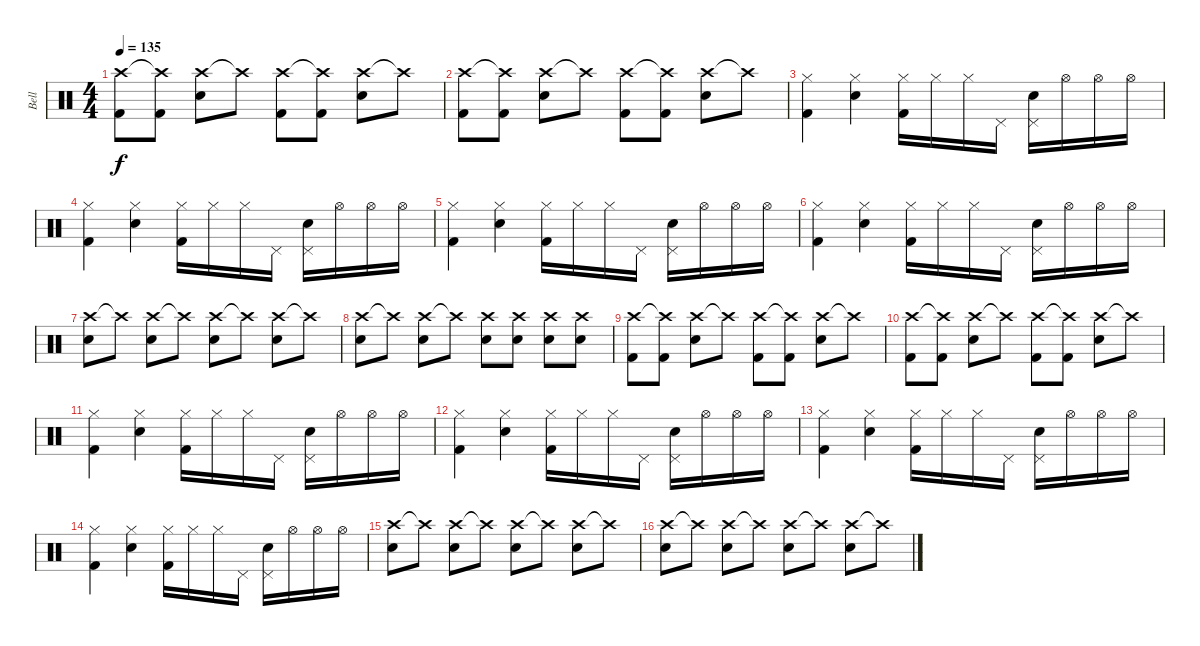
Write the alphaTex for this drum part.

\track ("Bell" "Bell") {instrument percussion}
\staff {score}
\articulation defaults
\ts (4 4)
\tempo 135
\clef neutral
\ks c
("Crash high (hit)" "Kick (hit) 2").8{dy f} ("Crash high (hit)"{t} "Kick (hit) 2").8 ("Crash high (hit)" "Snare (hit) 2").8 "Crash high (hit)"{t}.8 ("Crash high (hit)" "Kick (hit) 2").8 ("Crash high (hit)"{t} "Kick (hit) 2").8 ("Crash high (hit)" "Snare (hit) 2").8 "Crash high (hit)"{t}.8 |
("Crash high (hit)" "Kick (hit) 2").8 ("Crash high (hit)"{t} "Kick (hit) 2").8 ("Crash high (hit)" "Snare (hit) 2").8 "Crash high (hit)"{t}.8 ("Crash high (hit)" "Kick (hit) 2").8 ("Crash high (hit)"{t} "Kick (hit) 2").8 ("Crash high (hit)" "Snare (hit) 2").8 "Crash high (hit)"{t}.8 |
("Hi-Hat (closed)" "Kick (hit) 2").4 ("Hi-Hat (closed)" "Snare (hit) 2").4 ("Hi-Hat (closed)" "Kick (hit) 2").16 "Hi-Hat (closed)".16 "Hi-Hat (closed)".16 "Pedal Hi-Hat (hit)".16 ("Pedal Hi-Hat (hit)" "Snare (hit) 2").16 "Hi-Hat (open)".16 "Hi-Hat (open)".16 "Hi-Hat (open)".16 |
("Hi-Hat (closed)" "Kick (hit) 2").4 ("Hi-Hat (closed)" "Snare (hit) 2").4 ("Hi-Hat (closed)" "Kick (hit) 2").16 "Hi-Hat (closed)".16 "Hi-Hat (closed)".16 "Pedal Hi-Hat (hit)".16 ("Pedal Hi-Hat (hit)" "Snare (hit) 2").16 "Hi-Hat (open)".16 "Hi-Hat (open)".16 "Hi-Hat (open)".16 |
("Hi-Hat (closed)" "Kick (hit) 2").4 ("Hi-Hat (closed)" "Snare (hit) 2").4 ("Hi-Hat (closed)" "Kick (hit) 2").16 "Hi-Hat (closed)".16 "Hi-Hat (closed)".16 "Pedal Hi-Hat (hit)".16 ("Pedal Hi-Hat (hit)" "Snare (hit) 2").16 "Hi-Hat (open)".16 "Hi-Hat (open)".16 "Hi-Hat (open)".16 |
("Hi-Hat (closed)" "Kick (hit) 2").4 ("Hi-Hat (closed)" "Snare (hit) 2").4 ("Hi-Hat (closed)" "Kick (hit) 2").16 "Hi-Hat (closed)".16 "Hi-Hat (closed)".16 "Pedal Hi-Hat (hit)".16 ("Pedal Hi-Hat (hit)" "Snare (hit) 2").16 "Hi-Hat (open)".16 "Hi-Hat (open)".16 "Hi-Hat (open)".16 |
("Crash high (hit)" "Snare (hit) 2").8 "Crash high (hit)"{t}.8 ("Crash high (hit)" "Snare (hit) 2").8 "Crash high (hit)"{t}.8 ("Crash high (hit)" "Snare (hit) 2").8 "Crash high (hit)"{t}.8 ("Crash high (hit)" "Snare (hit) 2").8 "Crash high (hit)"{t}.8 |
("Crash high (hit)" "Snare (hit) 2").8 "Crash high (hit)"{t}.8 ("Crash high (hit)" "Snare (hit) 2").8 "Crash high (hit)"{t}.8 ("Crash high (hit)" "Snare (hit) 2").8 ("Crash high (hit)" "Snare (hit) 2").8 ("Crash high (hit)" "Snare (hit) 2").8 ("Crash high (hit)" "Snare (hit) 2").8 |
("Crash high (hit)" "Kick (hit) 2").8 ("Crash high (hit)"{t} "Kick (hit) 2").8 ("Crash high (hit)" "Snare (hit) 2").8 "Crash high (hit)"{t}.8 ("Crash high (hit)" "Kick (hit) 2").8 ("Crash high (hit)"{t} "Kick (hit) 2").8 ("Crash high (hit)" "Snare (hit) 2").8 "Crash high (hit)"{t}.8 |
("Crash high (hit)" "Kick (hit) 2").8 ("Crash high (hit)"{t} "Kick (hit) 2").8 ("Crash high (hit)" "Snare (hit) 2").8 "Crash high (hit)"{t}.8 ("Crash high (hit)" "Kick (hit) 2").8 ("Crash high (hit)"{t} "Kick (hit) 2").8 ("Crash high (hit)" "Snare (hit) 2").8 "Crash high (hit)"{t}.8 |
("Hi-Hat (closed)" "Kick (hit) 2").4 ("Hi-Hat (closed)" "Snare (hit) 2").4 ("Hi-Hat (closed)" "Kick (hit) 2").16 "Hi-Hat (closed)".16 "Hi-Hat (closed)".16 "Pedal Hi-Hat (hit)".16 ("Pedal Hi-Hat (hit)" "Snare (hit) 2").16 "Hi-Hat (open)".16 "Hi-Hat (open)".16 "Hi-Hat (open)".16 |
("Hi-Hat (closed)" "Kick (hit) 2").4 ("Hi-Hat (closed)" "Snare (hit) 2").4 ("Hi-Hat (closed)" "Kick (hit) 2").16 "Hi-Hat (closed)".16 "Hi-Hat (closed)".16 "Pedal Hi-Hat (hit)".16 ("Pedal Hi-Hat (hit)" "Snare (hit) 2").16 "Hi-Hat (open)".16 "Hi-Hat (open)".16 "Hi-Hat (open)".16 |
("Hi-Hat (closed)" "Kick (hit) 2").4 ("Hi-Hat (closed)" "Snare (hit) 2").4 ("Hi-Hat (closed)" "Kick (hit) 2").16 "Hi-Hat (closed)".16 "Hi-Hat (closed)".16 "Pedal Hi-Hat (hit)".16 ("Pedal Hi-Hat (hit)" "Snare (hit) 2").16 "Hi-Hat (open)".16 "Hi-Hat (open)".16 "Hi-Hat (open)".16 |
("Hi-Hat (closed)" "Kick (hit) 2").4 ("Hi-Hat (closed)" "Snare (hit) 2").4 ("Hi-Hat (closed)" "Kick (hit) 2").16 "Hi-Hat (closed)".16 "Hi-Hat (closed)".16 "Pedal Hi-Hat (hit)".16 ("Pedal Hi-Hat (hit)" "Snare (hit) 2").16 "Hi-Hat (open)".16 "Hi-Hat (open)".16 "Hi-Hat (open)".16 |
("Crash high (hit)" "Snare (hit) 2").8 "Crash high (hit)"{t}.8 ("Crash high (hit)" "Snare (hit) 2").8 "Crash high (hit)"{t}.8 ("Crash high (hit)" "Snare (hit) 2").8 "Crash high (hit)"{t}.8 ("Crash high (hit)" "Snare (hit) 2").8 "Crash high (hit)"{t}.8 |
("Crash high (hit)" "Snare (hit) 2").8 "Crash high (hit)"{t}.8 ("Crash high (hit)" "Snare (hit) 2").8 "Crash high (hit)"{t}.8 ("Crash high (hit)" "Snare (hit) 2").8 "Crash high (hit)"{t}.8 ("Crash high (hit)" "Snare (hit) 2").8 "Crash high (hit)"{t}.8
